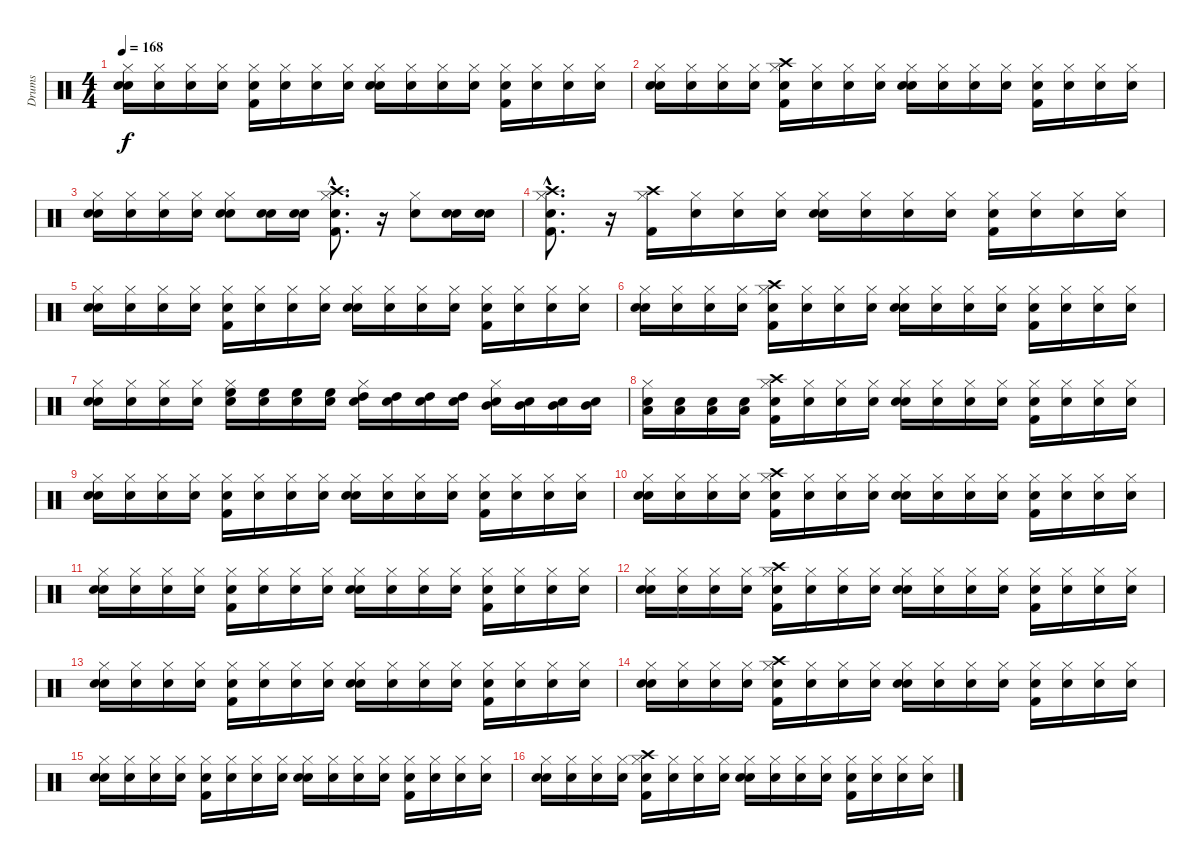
\track ("Drums" "Drums") {instrument percussion}
\staff {score}
\articulation defaults
\ts (4 4)
\tempo 168
\clef neutral
\ks c
("Snare (hit)" "Snare (hit) 2" "Hi-Hat (closed)").16{dy f} ("Snare (hit)" "Hi-Hat (closed)").16 ("Snare (hit)" "Hi-Hat (closed)").16 ("Snare (hit)" "Hi-Hat (closed)").16 ("Snare (hit)" "Kick (hit) 2" "Hi-Hat (closed)").16 ("Snare (hit)" "Hi-Hat (closed)").16 ("Snare (hit)" "Hi-Hat (closed)").16 ("Snare (hit)" "Hi-Hat (closed)").16 ("Snare (hit)" "Snare (hit) 2" "Hi-Hat (closed)").16 ("Snare (hit)" "Hi-Hat (closed)").16 ("Snare (hit)" "Hi-Hat (closed)").16 ("Snare (hit)" "Hi-Hat (closed)").16 ("Snare (hit)" "Kick (hit) 2" "Hi-Hat (closed)").16 ("Snare (hit)" "Hi-Hat (closed)").16 ("Snare (hit)" "Hi-Hat (closed)").16 ("Snare (hit)" "Hi-Hat (closed)").16 |
("Snare (hit)" "Snare (hit) 2" "Hi-Hat (closed)").16 ("Snare (hit)" "Hi-Hat (closed)").16 ("Snare (hit)" "Hi-Hat (closed)").16 ("Snare (hit)" "Hi-Hat (closed)").16 ("Snare (hit)" "Kick (hit) 2" "Hi-Hat (closed)" "Crash high (hit)").16 ("Snare (hit)" "Hi-Hat (closed)").16 ("Snare (hit)" "Hi-Hat (closed)").16 ("Snare (hit)" "Hi-Hat (closed)").16 ("Snare (hit)" "Snare (hit) 2" "Hi-Hat (closed)").16 ("Snare (hit)" "Hi-Hat (closed)").16 ("Snare (hit)" "Hi-Hat (closed)").16 ("Snare (hit)" "Hi-Hat (closed)").16 ("Snare (hit)" "Kick (hit) 2" "Hi-Hat (closed)").16 ("Snare (hit)" "Hi-Hat (closed)").16 ("Snare (hit)" "Hi-Hat (closed)").16 ("Snare (hit)" "Hi-Hat (closed)").16 |
("Snare (hit)" "Snare (hit) 2" "Hi-Hat (closed)").16 ("Snare (hit)" "Hi-Hat (closed)").16 ("Snare (hit)" "Hi-Hat (closed)").16 ("Snare (hit)" "Hi-Hat (closed)").16 ("Snare (hit)" "Snare (hit) 2" "Hi-Hat (closed)").8 ("Snare (hit)" "Snare (hit) 2").16 ("Snare (hit)" "Snare (hit) 2").16 ("Snare (hit)"{hac} "Kick (hit) 2"{hac} "Hi-Hat (closed)"{hac} "Crash high (hit)"{hac}).8{d} r.16 ("Snare (hit) 2" "Hi-Hat (closed)").8 ("Snare (hit)" "Snare (hit) 2").16 ("Snare (hit)" "Snare (hit) 2").16 |
("Snare (hit)"{hac} "Kick (hit) 2"{hac} "Hi-Hat (closed)"{hac} "Crash high (hit)"{hac}).8{d} r.16 ("Kick (hit) 2" "Hi-Hat (closed)" "Crash high (hit)").16 ("Snare (hit)" "Hi-Hat (closed)").16 ("Snare (hit)" "Hi-Hat (closed)").16 ("Snare (hit)" "Hi-Hat (closed)").16 ("Snare (hit)" "Snare (hit) 2" "Hi-Hat (closed)").16 ("Snare (hit)" "Hi-Hat (closed)").16 ("Snare (hit)" "Hi-Hat (closed)").16 ("Snare (hit)" "Hi-Hat (closed)").16 ("Snare (hit)" "Kick (hit) 2" "Hi-Hat (closed)").16 ("Snare (hit)" "Hi-Hat (closed)").16 ("Snare (hit)" "Hi-Hat (closed)").16 ("Snare (hit)" "Hi-Hat (closed)").16 |
("Snare (hit)" "Snare (hit) 2" "Hi-Hat (closed)").16 ("Snare (hit)" "Hi-Hat (closed)").16 ("Snare (hit)" "Hi-Hat (closed)").16 ("Snare (hit)" "Hi-Hat (closed)").16 ("Snare (hit)" "Kick (hit) 2" "Hi-Hat (closed)").16 ("Snare (hit)" "Hi-Hat (closed)").16 ("Snare (hit)" "Hi-Hat (closed)").16 ("Snare (hit)" "Hi-Hat (closed)").16 ("Snare (hit)" "Snare (hit) 2" "Hi-Hat (closed)").16 ("Snare (hit)" "Hi-Hat (closed)").16 ("Snare (hit)" "Hi-Hat (closed)").16 ("Snare (hit)" "Hi-Hat (closed)").16 ("Snare (hit)" "Kick (hit) 2" "Hi-Hat (closed)").16 ("Snare (hit)" "Hi-Hat (closed)").16 ("Snare (hit)" "Hi-Hat (closed)").16 ("Snare (hit)" "Hi-Hat (closed)").16 |
("Snare (hit)" "Snare (hit) 2" "Hi-Hat (closed)").16 ("Snare (hit)" "Hi-Hat (closed)").16 ("Snare (hit)" "Hi-Hat (closed)").16 ("Snare (hit)" "Hi-Hat (closed)").16 ("Snare (hit)" "Kick (hit) 2" "Hi-Hat (closed)" "Crash high (hit)").16 ("Snare (hit)" "Hi-Hat (closed)").16 ("Snare (hit)" "Hi-Hat (closed)").16 ("Snare (hit)" "Hi-Hat (closed)").16 ("Snare (hit)" "Snare (hit) 2" "Hi-Hat (closed)").16 ("Snare (hit)" "Hi-Hat (closed)").16 ("Snare (hit)" "Hi-Hat (closed)").16 ("Snare (hit)" "Hi-Hat (closed)").16 ("Snare (hit)" "Kick (hit) 2" "Hi-Hat (closed)").16 ("Snare (hit)" "Hi-Hat (closed)").16 ("Snare (hit)" "Hi-Hat (closed)").16 ("Snare (hit)" "Hi-Hat (closed)").16 |
("Snare (hit)" "Snare (hit) 2" "Hi-Hat (closed)").16 ("Snare (hit)" "Hi-Hat (closed)").16 ("Snare (hit)" "Hi-Hat (closed)").16 ("Snare (hit)" "Hi-Hat (closed)").16 ("Snare (hit)" "Hi-Hat (closed)" "High Floor Tom (hit)").16 ("Snare (hit)" "High Floor Tom (hit)").16 ("Snare (hit)" "High Floor Tom (hit)").16 ("Snare (hit)" "High Floor Tom (hit)").16 ("Snare (hit)" "Hi-Hat (closed)" "High Tom (hit)").16 ("Snare (hit)" "High Tom (hit)").16 ("Snare (hit)" "High Tom (hit)").16 ("Snare (hit)" "High Tom (hit)").16 ("Snare (hit)" "Hi-Hat (closed)" "Mid Tom (hit)").16 ("Snare (hit)" "Mid Tom (hit)").16 ("Snare (hit)" "Mid Tom (hit)").16 ("Snare (hit)" "Mid Tom (hit)").16 |
("Snare (hit)" "Hi-Hat (closed)" "Low Tom (hit)").16 ("Snare (hit)" "Low Tom (hit)").16 ("Snare (hit)" "Low Tom (hit)").16 ("Snare (hit)" "Low Tom (hit)").16 ("Snare (hit)" "Kick (hit) 2" "Hi-Hat (closed)" "Crash high (hit)").16 ("Snare (hit)" "Hi-Hat (closed)").16 ("Snare (hit)" "Hi-Hat (closed)").16 ("Snare (hit)" "Hi-Hat (closed)").16 ("Snare (hit)" "Snare (hit) 2" "Hi-Hat (closed)").16 ("Snare (hit)" "Hi-Hat (closed)").16 ("Snare (hit)" "Hi-Hat (closed)").16 ("Snare (hit)" "Hi-Hat (closed)").16 ("Snare (hit)" "Kick (hit) 2" "Hi-Hat (closed)").16 ("Snare (hit)" "Hi-Hat (closed)").16 ("Snare (hit)" "Hi-Hat (closed)").16 ("Snare (hit)" "Hi-Hat (closed)").16 |
("Snare (hit)" "Snare (hit) 2" "Hi-Hat (closed)").16 ("Snare (hit)" "Hi-Hat (closed)").16 ("Snare (hit)" "Hi-Hat (closed)").16 ("Snare (hit)" "Hi-Hat (closed)").16 ("Snare (hit)" "Kick (hit) 2" "Hi-Hat (closed)").16 ("Snare (hit)" "Hi-Hat (closed)").16 ("Snare (hit)" "Hi-Hat (closed)").16 ("Snare (hit)" "Hi-Hat (closed)").16 ("Snare (hit)" "Snare (hit) 2" "Hi-Hat (closed)").16 ("Snare (hit)" "Hi-Hat (closed)").16 ("Snare (hit)" "Hi-Hat (closed)").16 ("Snare (hit)" "Hi-Hat (closed)").16 ("Snare (hit)" "Kick (hit) 2" "Hi-Hat (closed)").16 ("Snare (hit)" "Hi-Hat (closed)").16 ("Snare (hit)" "Hi-Hat (closed)").16 ("Snare (hit)" "Hi-Hat (closed)").16 |
("Snare (hit)" "Snare (hit) 2" "Hi-Hat (closed)").16 ("Snare (hit)" "Hi-Hat (closed)").16 ("Snare (hit)" "Hi-Hat (closed)").16 ("Snare (hit)" "Hi-Hat (closed)").16 ("Snare (hit)" "Kick (hit) 2" "Hi-Hat (closed)" "Crash high (hit)").16 ("Snare (hit)" "Hi-Hat (closed)").16 ("Snare (hit)" "Hi-Hat (closed)").16 ("Snare (hit)" "Hi-Hat (closed)").16 ("Snare (hit)" "Snare (hit) 2" "Hi-Hat (closed)").16 ("Snare (hit)" "Hi-Hat (closed)").16 ("Snare (hit)" "Hi-Hat (closed)").16 ("Snare (hit)" "Hi-Hat (closed)").16 ("Snare (hit)" "Kick (hit) 2" "Hi-Hat (closed)").16 ("Snare (hit)" "Hi-Hat (closed)").16 ("Snare (hit)" "Hi-Hat (closed)").16 ("Snare (hit)" "Hi-Hat (closed)").16 |
("Snare (hit)" "Snare (hit) 2" "Hi-Hat (closed)").16 ("Snare (hit)" "Hi-Hat (closed)").16 ("Snare (hit)" "Hi-Hat (closed)").16 ("Snare (hit)" "Hi-Hat (closed)").16 ("Snare (hit)" "Kick (hit) 2" "Hi-Hat (closed)").16 ("Snare (hit)" "Hi-Hat (closed)").16 ("Snare (hit)" "Hi-Hat (closed)").16 ("Snare (hit)" "Hi-Hat (closed)").16 ("Snare (hit)" "Snare (hit) 2" "Hi-Hat (closed)").16 ("Snare (hit)" "Hi-Hat (closed)").16 ("Snare (hit)" "Hi-Hat (closed)").16 ("Snare (hit)" "Hi-Hat (closed)").16 ("Snare (hit)" "Kick (hit) 2" "Hi-Hat (closed)").16 ("Snare (hit)" "Hi-Hat (closed)").16 ("Snare (hit)" "Hi-Hat (closed)").16 ("Snare (hit)" "Hi-Hat (closed)").16 |
("Snare (hit)" "Snare (hit) 2" "Hi-Hat (closed)").16 ("Snare (hit)" "Hi-Hat (closed)").16 ("Snare (hit)" "Hi-Hat (closed)").16 ("Snare (hit)" "Hi-Hat (closed)").16 ("Snare (hit)" "Kick (hit) 2" "Hi-Hat (closed)" "Crash high (hit)").16 ("Snare (hit)" "Hi-Hat (closed)").16 ("Snare (hit)" "Hi-Hat (closed)").16 ("Snare (hit)" "Hi-Hat (closed)").16 ("Snare (hit)" "Snare (hit) 2" "Hi-Hat (closed)").16 ("Snare (hit)" "Hi-Hat (closed)").16 ("Snare (hit)" "Hi-Hat (closed)").16 ("Snare (hit)" "Hi-Hat (closed)").16 ("Snare (hit)" "Kick (hit) 2" "Hi-Hat (closed)").16 ("Snare (hit)" "Hi-Hat (closed)").16 ("Snare (hit)" "Hi-Hat (closed)").16 ("Snare (hit)" "Hi-Hat (closed)").16 |
("Snare (hit)" "Snare (hit) 2" "Hi-Hat (closed)").16 ("Snare (hit)" "Hi-Hat (closed)").16 ("Snare (hit)" "Hi-Hat (closed)").16 ("Snare (hit)" "Hi-Hat (closed)").16 ("Snare (hit)" "Kick (hit) 2" "Hi-Hat (closed)").16 ("Snare (hit)" "Hi-Hat (closed)").16 ("Snare (hit)" "Hi-Hat (closed)").16 ("Snare (hit)" "Hi-Hat (closed)").16 ("Snare (hit)" "Snare (hit) 2" "Hi-Hat (closed)").16 ("Snare (hit)" "Hi-Hat (closed)").16 ("Snare (hit)" "Hi-Hat (closed)").16 ("Snare (hit)" "Hi-Hat (closed)").16 ("Snare (hit)" "Kick (hit) 2" "Hi-Hat (closed)").16 ("Snare (hit)" "Hi-Hat (closed)").16 ("Snare (hit)" "Hi-Hat (closed)").16 ("Snare (hit)" "Hi-Hat (closed)").16 |
("Snare (hit)" "Snare (hit) 2" "Hi-Hat (closed)").16 ("Snare (hit)" "Hi-Hat (closed)").16 ("Snare (hit)" "Hi-Hat (closed)").16 ("Snare (hit)" "Hi-Hat (closed)").16 ("Snare (hit)" "Kick (hit) 2" "Hi-Hat (closed)" "Crash high (hit)").16 ("Snare (hit)" "Hi-Hat (closed)").16 ("Snare (hit)" "Hi-Hat (closed)").16 ("Snare (hit)" "Hi-Hat (closed)").16 ("Snare (hit)" "Snare (hit) 2" "Hi-Hat (closed)").16 ("Snare (hit)" "Hi-Hat (closed)").16 ("Snare (hit)" "Hi-Hat (closed)").16 ("Snare (hit)" "Hi-Hat (closed)").16 ("Snare (hit)" "Kick (hit) 2" "Hi-Hat (closed)").16 ("Snare (hit)" "Hi-Hat (closed)").16 ("Snare (hit)" "Hi-Hat (closed)").16 ("Snare (hit)" "Hi-Hat (closed)").16 |
("Snare (hit)" "Snare (hit) 2" "Hi-Hat (closed)").16 ("Snare (hit)" "Hi-Hat (closed)").16 ("Snare (hit)" "Hi-Hat (closed)").16 ("Snare (hit)" "Hi-Hat (closed)").16 ("Snare (hit)" "Kick (hit) 2" "Hi-Hat (closed)").16 ("Snare (hit)" "Hi-Hat (closed)").16 ("Snare (hit)" "Hi-Hat (closed)").16 ("Snare (hit)" "Hi-Hat (closed)").16 ("Snare (hit)" "Snare (hit) 2" "Hi-Hat (closed)").16 ("Snare (hit)" "Hi-Hat (closed)").16 ("Snare (hit)" "Hi-Hat (closed)").16 ("Snare (hit)" "Hi-Hat (closed)").16 ("Snare (hit)" "Kick (hit) 2" "Hi-Hat (closed)").16 ("Snare (hit)" "Hi-Hat (closed)").16 ("Snare (hit)" "Hi-Hat (closed)").16 ("Snare (hit)" "Hi-Hat (closed)").16 |
("Snare (hit)" "Snare (hit) 2" "Hi-Hat (closed)").16 ("Snare (hit)" "Hi-Hat (closed)").16 ("Snare (hit)" "Hi-Hat (closed)").16 ("Snare (hit)" "Hi-Hat (closed)").16 ("Snare (hit)" "Kick (hit) 2" "Hi-Hat (closed)" "Crash high (hit)").16 ("Snare (hit)" "Hi-Hat (closed)").16 ("Snare (hit)" "Hi-Hat (closed)").16 ("Snare (hit)" "Hi-Hat (closed)").16 ("Snare (hit)" "Snare (hit) 2" "Hi-Hat (closed)").16 ("Snare (hit)" "Hi-Hat (closed)").16 ("Snare (hit)" "Hi-Hat (closed)").16 ("Snare (hit)" "Hi-Hat (closed)").16 ("Snare (hit)" "Kick (hit) 2" "Hi-Hat (closed)").16 ("Snare (hit)" "Hi-Hat (closed)").16 ("Snare (hit)" "Hi-Hat (closed)").16 ("Snare (hit)" "Hi-Hat (closed)").16
